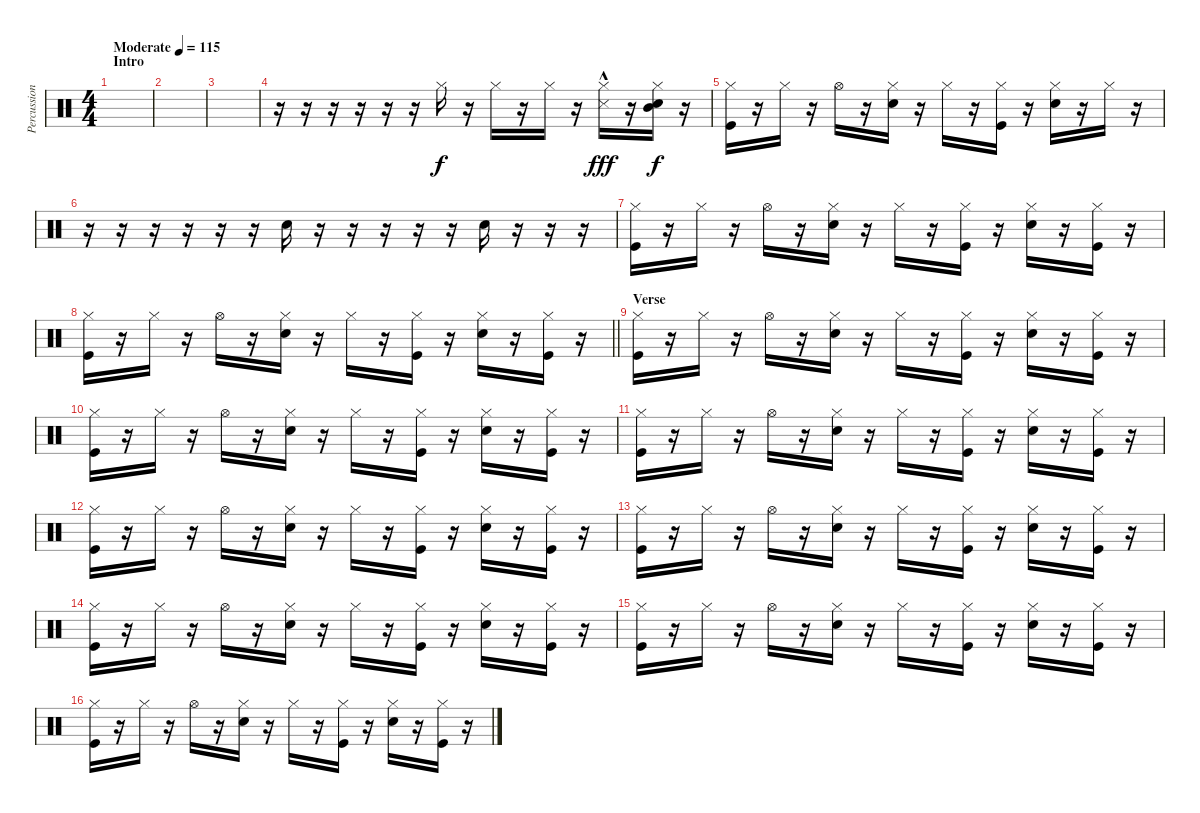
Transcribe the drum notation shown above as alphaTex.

\track ("Percussion" "Percussion") {instrument percussion}
\staff {score}
\articulation defaults
\ts (4 4)
\section ("" "Intro")
\tempo (115 "Moderate")
\clef neutral
\ks c
|
|
|
r.16 r.16 r.16 r.16 r.16 r.16 "Hi-Hat (closed)".16 r.16 "Hi-Hat (closed)".16 r.16 "Hi-Hat (closed)".16 r.16 ("Hi-Hat (closed)" "Snare (side stick) 3"{hac}).16{dy fff} r.16 ("Hi-Hat (closed)" "Mid Tom (hit)" "Snare (hit) 2").16{dy f} r.16 |
("Hi-Hat (closed)" "Kick (hit)").16 r.16 "Hi-Hat (closed)".16 r.16 "Hi-Hat (open)".16 r.16 ("Hi-Hat (closed)" "Snare (hit) 2").16 r.16 "Hi-Hat (closed)".16 r.16 ("Hi-Hat (closed)" "Kick (hit)").16 r.16 ("Hi-Hat (closed)" "Snare (hit) 2").16 r.16 "Hi-Hat (closed)".16 r.16 |
r.16 r.16 r.16 r.16 r.16 r.16 "Snare (hit) 2".16 r.16 r.16 r.16 r.16 r.16 "Snare (hit) 2".16 r.16 r.16 r.16 |
("Hi-Hat (closed)" "Kick (hit)").16 r.16 "Hi-Hat (closed)".16 r.16 "Hi-Hat (open)".16 r.16 ("Hi-Hat (closed)" "Snare (hit) 2").16 r.16 "Hi-Hat (closed)".16 r.16 ("Hi-Hat (closed)" "Kick (hit)").16 r.16 ("Hi-Hat (closed)" "Snare (hit) 2").16 r.16 ("Hi-Hat (closed)" "Kick (hit)").16 r.16 |
\barLineRight lightlight
("Hi-Hat (closed)" "Kick (hit)").16 r.16 "Hi-Hat (closed)".16 r.16 "Hi-Hat (open)".16 r.16 ("Hi-Hat (closed)" "Snare (hit) 2").16 r.16 "Hi-Hat (closed)".16 r.16 ("Hi-Hat (closed)" "Kick (hit)").16 r.16 ("Hi-Hat (closed)" "Snare (hit) 2").16 r.16 ("Hi-Hat (closed)" "Kick (hit)").16 r.16 |
\section ("" "Verse")
("Hi-Hat (closed)" "Kick (hit)").16 r.16 "Hi-Hat (closed)".16 r.16 "Hi-Hat (open)".16 r.16 ("Hi-Hat (closed)" "Snare (hit) 2").16 r.16 "Hi-Hat (closed)".16 r.16 ("Hi-Hat (closed)" "Kick (hit)").16 r.16 ("Hi-Hat (closed)" "Snare (hit) 2").16 r.16 ("Hi-Hat (closed)" "Kick (hit)").16 r.16 |
("Hi-Hat (closed)" "Kick (hit)").16 r.16 "Hi-Hat (closed)".16 r.16 "Hi-Hat (open)".16 r.16 ("Hi-Hat (closed)" "Snare (hit) 2").16 r.16 "Hi-Hat (closed)".16 r.16 ("Hi-Hat (closed)" "Kick (hit)").16 r.16 ("Hi-Hat (closed)" "Snare (hit) 2").16 r.16 ("Hi-Hat (closed)" "Kick (hit)").16 r.16 |
("Hi-Hat (closed)" "Kick (hit)").16 r.16 "Hi-Hat (closed)".16 r.16 "Hi-Hat (open)".16 r.16 ("Hi-Hat (closed)" "Snare (hit) 2").16 r.16 "Hi-Hat (closed)".16 r.16 ("Hi-Hat (closed)" "Kick (hit)").16 r.16 ("Hi-Hat (closed)" "Snare (hit) 2").16 r.16 ("Hi-Hat (closed)" "Kick (hit)").16 r.16 |
("Hi-Hat (closed)" "Kick (hit)").16 r.16 "Hi-Hat (closed)".16 r.16 "Hi-Hat (open)".16 r.16 ("Hi-Hat (closed)" "Snare (hit) 2").16 r.16 "Hi-Hat (closed)".16 r.16 ("Hi-Hat (closed)" "Kick (hit)").16 r.16 ("Hi-Hat (closed)" "Snare (hit) 2").16 r.16 ("Hi-Hat (closed)" "Kick (hit)").16 r.16 |
("Hi-Hat (closed)" "Kick (hit)").16 r.16 "Hi-Hat (closed)".16 r.16 "Hi-Hat (open)".16 r.16 ("Hi-Hat (closed)" "Snare (hit) 2").16 r.16 "Hi-Hat (closed)".16 r.16 ("Hi-Hat (closed)" "Kick (hit)").16 r.16 ("Hi-Hat (closed)" "Snare (hit) 2").16 r.16 ("Hi-Hat (closed)" "Kick (hit)").16 r.16 |
("Hi-Hat (closed)" "Kick (hit)").16 r.16 "Hi-Hat (closed)".16 r.16 "Hi-Hat (open)".16 r.16 ("Hi-Hat (closed)" "Snare (hit) 2").16 r.16 "Hi-Hat (closed)".16 r.16 ("Hi-Hat (closed)" "Kick (hit)").16 r.16 ("Hi-Hat (closed)" "Snare (hit) 2").16 r.16 ("Hi-Hat (closed)" "Kick (hit)").16 r.16 |
("Hi-Hat (closed)" "Kick (hit)").16 r.16 "Hi-Hat (closed)".16 r.16 "Hi-Hat (open)".16 r.16 ("Hi-Hat (closed)" "Snare (hit) 2").16 r.16 "Hi-Hat (closed)".16 r.16 ("Hi-Hat (closed)" "Kick (hit)").16 r.16 ("Hi-Hat (closed)" "Snare (hit) 2").16 r.16 ("Hi-Hat (closed)" "Kick (hit)").16 r.16 |
("Hi-Hat (closed)" "Kick (hit)").16 r.16 "Hi-Hat (closed)".16 r.16 "Hi-Hat (open)".16 r.16 ("Hi-Hat (closed)" "Snare (hit) 2").16 r.16 "Hi-Hat (closed)".16 r.16 ("Hi-Hat (closed)" "Kick (hit)").16 r.16 ("Hi-Hat (closed)" "Snare (hit) 2").16 r.16 ("Hi-Hat (closed)" "Kick (hit)").16 r.16
